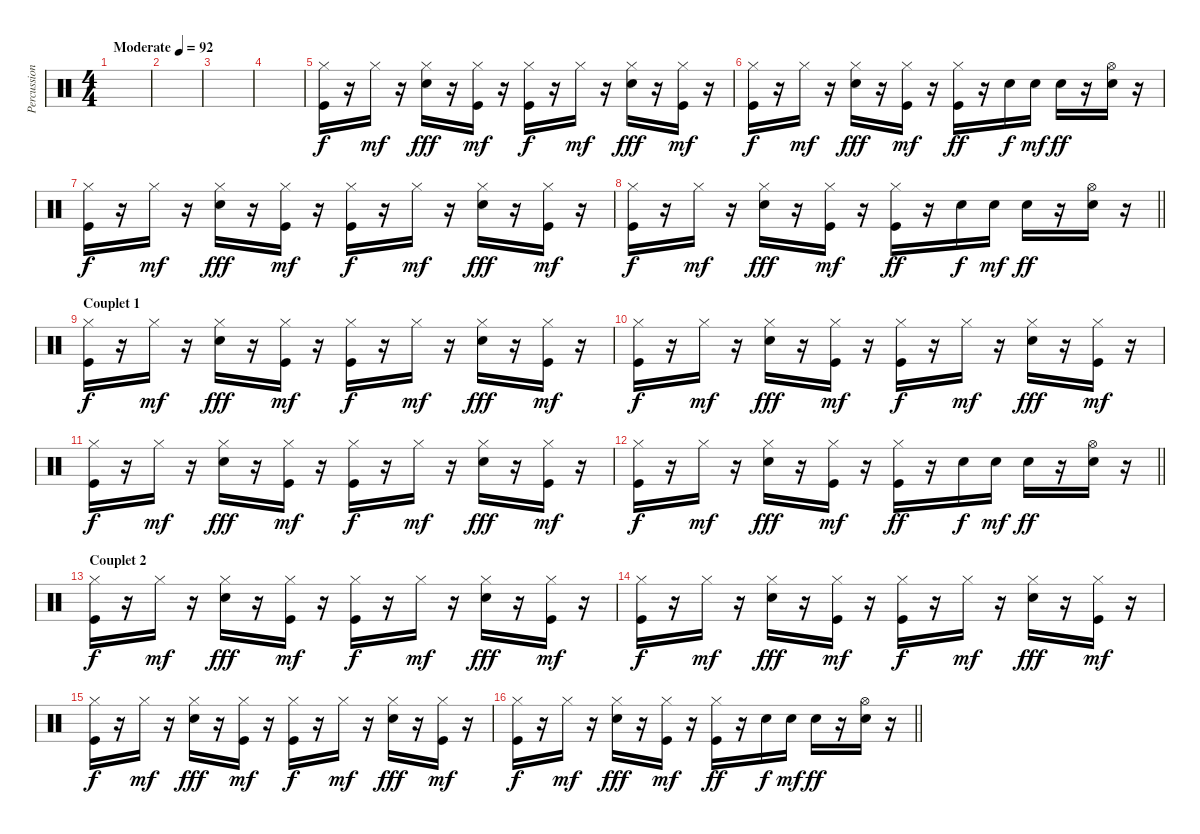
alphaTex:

\track ("Percussions" "Percussion") {instrument percussion}
\staff {score}
\articulation defaults
\ts (4 4)
\tempo (92 "Moderate")
\clef neutral
\ks c
|
|
|
|
("Kick (hit)" "Hi-Hat (closed)").16 r.16 "Hi-Hat (closed)".16{dy mf} r.16 ("Snare (hit) 2" "Hi-Hat (closed)").16{dy fff} r.16 ("Kick (hit)" "Hi-Hat (closed)").16{dy mf} r.16 ("Kick (hit)" "Hi-Hat (closed)").16{dy f} r.16 "Hi-Hat (closed)".16{dy mf} r.16 ("Snare (hit) 2" "Hi-Hat (closed)").16{dy fff} r.16 ("Kick (hit)" "Hi-Hat (closed)").16{dy mf} r.16 |
("Kick (hit)" "Hi-Hat (closed)").16{dy f} r.16 "Hi-Hat (closed)".16{dy mf} r.16 ("Snare (hit) 2" "Hi-Hat (closed)").16{dy fff} r.16 ("Kick (hit)" "Hi-Hat (closed)").16{dy mf} r.16 ("Kick (hit)" "Hi-Hat (closed)").16{dy ff} r.16 "Snare (hit) 2".16{dy f} "Snare (hit) 2".16{dy mf} "Snare (hit) 2".16{dy ff} r.16 ("Snare (hit) 2" "Hi-Hat (open)").16 r.16 |
("Kick (hit)" "Hi-Hat (closed)").16{dy f} r.16 "Hi-Hat (closed)".16{dy mf} r.16 ("Snare (hit) 2" "Hi-Hat (closed)").16{dy fff} r.16 ("Kick (hit)" "Hi-Hat (closed)").16{dy mf} r.16 ("Kick (hit)" "Hi-Hat (closed)").16{dy f} r.16 "Hi-Hat (closed)".16{dy mf} r.16 ("Snare (hit) 2" "Hi-Hat (closed)").16{dy fff} r.16 ("Kick (hit)" "Hi-Hat (closed)").16{dy mf} r.16 |
\barLineRight lightlight
("Kick (hit)" "Hi-Hat (closed)").16{dy f} r.16 "Hi-Hat (closed)".16{dy mf} r.16 ("Snare (hit) 2" "Hi-Hat (closed)").16{dy fff} r.16 ("Kick (hit)" "Hi-Hat (closed)").16{dy mf} r.16 ("Kick (hit)" "Hi-Hat (closed)").16{dy ff} r.16 "Snare (hit) 2".16{dy f} "Snare (hit) 2".16{dy mf} "Snare (hit) 2".16{dy ff} r.16 ("Snare (hit) 2" "Hi-Hat (open)").16 r.16 |
\section ("" "Couplet 1")
("Kick (hit)" "Hi-Hat (closed)").16{dy f} r.16 "Hi-Hat (closed)".16{dy mf} r.16 ("Snare (hit) 2" "Hi-Hat (closed)").16{dy fff} r.16 ("Kick (hit)" "Hi-Hat (closed)").16{dy mf} r.16 ("Kick (hit)" "Hi-Hat (closed)").16{dy f} r.16 "Hi-Hat (closed)".16{dy mf} r.16 ("Snare (hit) 2" "Hi-Hat (closed)").16{dy fff} r.16 ("Kick (hit)" "Hi-Hat (closed)").16{dy mf} r.16 |
("Kick (hit)" "Hi-Hat (closed)").16{dy f} r.16 "Hi-Hat (closed)".16{dy mf} r.16 ("Snare (hit) 2" "Hi-Hat (closed)").16{dy fff} r.16 ("Kick (hit)" "Hi-Hat (closed)").16{dy mf} r.16 ("Kick (hit)" "Hi-Hat (closed)").16{dy f} r.16 "Hi-Hat (closed)".16{dy mf} r.16 ("Snare (hit) 2" "Hi-Hat (closed)").16{dy fff} r.16 ("Kick (hit)" "Hi-Hat (closed)").16{dy mf} r.16 |
("Kick (hit)" "Hi-Hat (closed)").16{dy f} r.16 "Hi-Hat (closed)".16{dy mf} r.16 ("Snare (hit) 2" "Hi-Hat (closed)").16{dy fff} r.16 ("Kick (hit)" "Hi-Hat (closed)").16{dy mf} r.16 ("Kick (hit)" "Hi-Hat (closed)").16{dy f} r.16 "Hi-Hat (closed)".16{dy mf} r.16 ("Snare (hit) 2" "Hi-Hat (closed)").16{dy fff} r.16 ("Kick (hit)" "Hi-Hat (closed)").16{dy mf} r.16 |
\barLineRight lightlight
("Kick (hit)" "Hi-Hat (closed)").16{dy f} r.16 "Hi-Hat (closed)".16{dy mf} r.16 ("Snare (hit) 2" "Hi-Hat (closed)").16{dy fff} r.16 ("Kick (hit)" "Hi-Hat (closed)").16{dy mf} r.16 ("Kick (hit)" "Hi-Hat (closed)").16{dy ff} r.16 "Snare (hit) 2".16{dy f} "Snare (hit) 2".16{dy mf} "Snare (hit) 2".16{dy ff} r.16 ("Snare (hit) 2" "Hi-Hat (open)").16 r.16 |
\section ("" "Couplet 2")
("Kick (hit)" "Hi-Hat (closed)").16{dy f} r.16 "Hi-Hat (closed)".16{dy mf} r.16 ("Snare (hit) 2" "Hi-Hat (closed)").16{dy fff} r.16 ("Kick (hit)" "Hi-Hat (closed)").16{dy mf} r.16 ("Kick (hit)" "Hi-Hat (closed)").16{dy f} r.16 "Hi-Hat (closed)".16{dy mf} r.16 ("Snare (hit) 2" "Hi-Hat (closed)").16{dy fff} r.16 ("Kick (hit)" "Hi-Hat (closed)").16{dy mf} r.16 |
("Kick (hit)" "Hi-Hat (closed)").16{dy f} r.16 "Hi-Hat (closed)".16{dy mf} r.16 ("Snare (hit) 2" "Hi-Hat (closed)").16{dy fff} r.16 ("Kick (hit)" "Hi-Hat (closed)").16{dy mf} r.16 ("Kick (hit)" "Hi-Hat (closed)").16{dy f} r.16 "Hi-Hat (closed)".16{dy mf} r.16 ("Snare (hit) 2" "Hi-Hat (closed)").16{dy fff} r.16 ("Kick (hit)" "Hi-Hat (closed)").16{dy mf} r.16 |
("Kick (hit)" "Hi-Hat (closed)").16{dy f} r.16 "Hi-Hat (closed)".16{dy mf} r.16 ("Snare (hit) 2" "Hi-Hat (closed)").16{dy fff} r.16 ("Kick (hit)" "Hi-Hat (closed)").16{dy mf} r.16 ("Kick (hit)" "Hi-Hat (closed)").16{dy f} r.16 "Hi-Hat (closed)".16{dy mf} r.16 ("Snare (hit) 2" "Hi-Hat (closed)").16{dy fff} r.16 ("Kick (hit)" "Hi-Hat (closed)").16{dy mf} r.16 |
\barLineRight lightlight
("Kick (hit)" "Hi-Hat (closed)").16{dy f} r.16 "Hi-Hat (closed)".16{dy mf} r.16 ("Snare (hit) 2" "Hi-Hat (closed)").16{dy fff} r.16 ("Kick (hit)" "Hi-Hat (closed)").16{dy mf} r.16 ("Kick (hit)" "Hi-Hat (closed)").16{dy ff} r.16 "Snare (hit) 2".16{dy f} "Snare (hit) 2".16{dy mf} "Snare (hit) 2".16{dy ff} r.16 ("Snare (hit) 2" "Hi-Hat (open)").16 r.16
